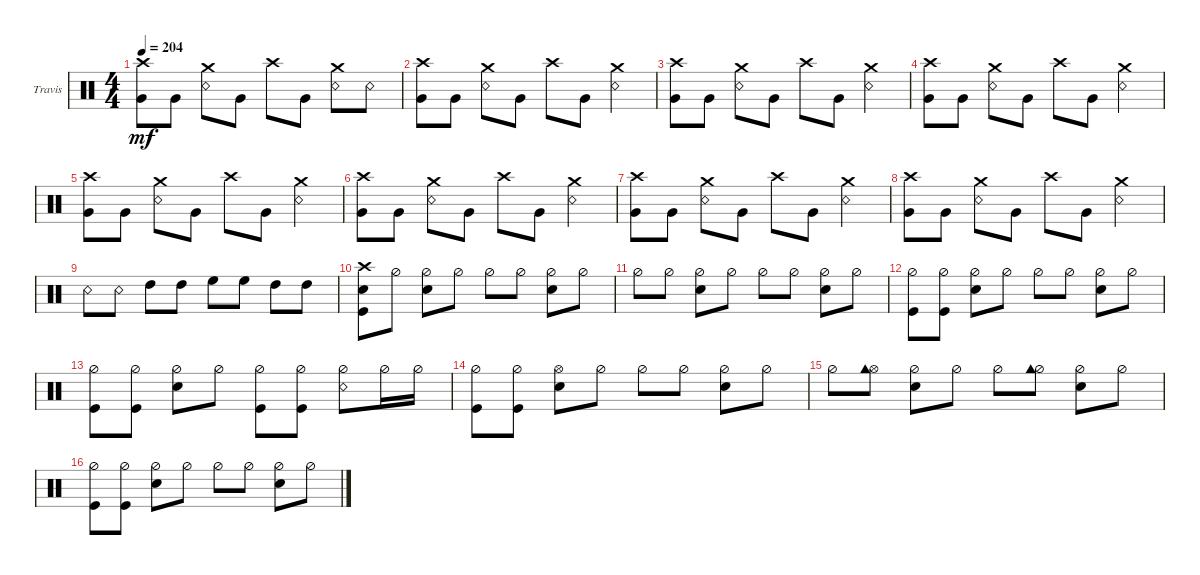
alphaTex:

\defaultSystemsLayout 4
\bracketExtendMode groupsimilarinstruments
\firstSystemTrackNameOrientation horizontal
\otherSystemsTrackNameOrientation horizontal
\track ("Travis Barker" "Travis") {instrument percussion}
\staff {score}
\articulation defaults
\ts (4 4)
\tempo 204
\clef neutral
\ks c
("Very Low Tom (hit)" "Crash high (hit)").8{dy mf} "Very Low Tom (hit)".8 ("Snare (rim shot)" "Crash medium (hit)").8 "Very Low Tom (hit)".8 "Crash high (hit)".8 "Very Low Tom (hit)".8 ("Snare (rim shot)" "Crash medium (hit)").8 "Snare (rim shot)".8 |
("Very Low Tom (hit)" "Crash high (hit)").8 "Very Low Tom (hit)".8 ("Snare (rim shot)" "Crash medium (hit)").8 "Very Low Tom (hit)".8 "Crash high (hit)".8 "Very Low Tom (hit)".8 ("Snare (rim shot)" "Crash medium (hit)").4 |
("Very Low Tom (hit)" "Crash high (hit)").8 "Very Low Tom (hit)".8 ("Snare (rim shot)" "Crash medium (hit)").8 "Very Low Tom (hit)".8 "Crash high (hit)".8 "Very Low Tom (hit)".8 ("Snare (rim shot)" "Crash medium (hit)").4 |
("Very Low Tom (hit)" "Crash high (hit)").8 "Very Low Tom (hit)".8 ("Snare (rim shot)" "Crash medium (hit)").8 "Very Low Tom (hit)".8 "Crash high (hit)".8 "Very Low Tom (hit)".8 ("Snare (rim shot)" "Crash medium (hit)").4 |
("Very Low Tom (hit)" "Crash high (hit)").8 "Very Low Tom (hit)".8 ("Snare (rim shot)" "Crash medium (hit)").8 "Very Low Tom (hit)".8 "Crash high (hit)".8 "Very Low Tom (hit)".8 ("Snare (rim shot)" "Crash medium (hit)").4 |
("Very Low Tom (hit)" "Crash high (hit)").8 "Very Low Tom (hit)".8 ("Snare (rim shot)" "Crash medium (hit)").8 "Very Low Tom (hit)".8 "Crash high (hit)".8 "Very Low Tom (hit)".8 ("Snare (rim shot)" "Crash medium (hit)").4 |
("Very Low Tom (hit)" "Crash high (hit)").8 "Very Low Tom (hit)".8 ("Snare (rim shot)" "Crash medium (hit)").8 "Very Low Tom (hit)".8 "Crash high (hit)".8 "Very Low Tom (hit)".8 ("Snare (rim shot)" "Crash medium (hit)").4 |
("Very Low Tom (hit)" "Crash high (hit)").8 "Very Low Tom (hit)".8 ("Snare (rim shot)" "Crash medium (hit)").8 "Very Low Tom (hit)".8 "Crash high (hit)".8 "Very Low Tom (hit)".8 ("Snare (rim shot)" "Crash medium (hit)").4 |
"Snare (rim shot)".8 "Snare (rim shot)".8 "High Tom (hit)".8 "High Tom (hit)".8 "High Floor Tom (hit)".8 "High Floor Tom (hit)".8 "High Tom (hit)".8 "High Tom (hit)".8 |
("Crash high (hit)" "Kick (hit)" "Snare (hit) 2").8 "Hi-Hat (half)".8 ("Hi-Hat (half)" "Snare (hit) 2").8 "Hi-Hat (half)".8 "Hi-Hat (half)".8 "Hi-Hat (half)".8 ("Hi-Hat (half)" "Snare (hit) 2").8 "Hi-Hat (half)".8 |
"Hi-Hat (half)".8 "Hi-Hat (half)".8 ("Hi-Hat (half)" "Snare (hit) 2").8 "Hi-Hat (half)".8 "Hi-Hat (half)".8 "Hi-Hat (half)".8 ("Hi-Hat (half)" "Snare (hit) 2").8 "Hi-Hat (half)".8 |
("Hi-Hat (half)" "Kick (hit)").8 ("Kick (hit)" "Hi-Hat (half)").8 ("Hi-Hat (half)" "Snare (hit) 2").8 "Hi-Hat (half)".8 "Hi-Hat (half)".8 "Hi-Hat (half)".8 ("Hi-Hat (half)" "Snare (hit) 2").8 "Hi-Hat (half)".8 |
("Hi-Hat (half)" "Kick (hit)").8 ("Hi-Hat (half)" "Kick (hit)").8 ("Hi-Hat (half)" "Snare (hit) 2").8 "Hi-Hat (half)".8 ("Hi-Hat (half)" "Kick (hit)").8 ("Hi-Hat (half)" "Kick (hit)").8 ("Hi-Hat (half)" "Snare (rim shot)").8 "Hi-Hat (half)".16 "Hi-Hat (half)".16 |
("Hi-Hat (half)" "Kick (hit)").8 ("Kick (hit)" "Hi-Hat (half)").8 ("Hi-Hat (open)" "Snare (hit) 2").8 "Hi-Hat (half)".8 "Hi-Hat (half)".8 "Hi-Hat (half)".8 ("Hi-Hat (half)" "Snare (hit) 2").8 "Hi-Hat (half)".8 |
"Hi-Hat (half)".8 ("Hi-Hat (open)" "Cowbell high (hit)").8 ("Hi-Hat (half)" "Snare (hit) 2").8 "Hi-Hat (half)".8 "Hi-Hat (half)".8 ("Hi-Hat (half)" "Cowbell high (hit)").8 ("Hi-Hat (half)" "Snare (hit) 2").8 "Hi-Hat (half)".8 |
("Hi-Hat (half)" "Kick (hit)").8 ("Kick (hit)" "Hi-Hat (half)").8 ("Hi-Hat (half)" "Snare (hit) 2").8 "Hi-Hat (half)".8 "Hi-Hat (half)".8 "Hi-Hat (half)".8 ("Hi-Hat (half)" "Snare (hit) 2").8 "Hi-Hat (half)".8
